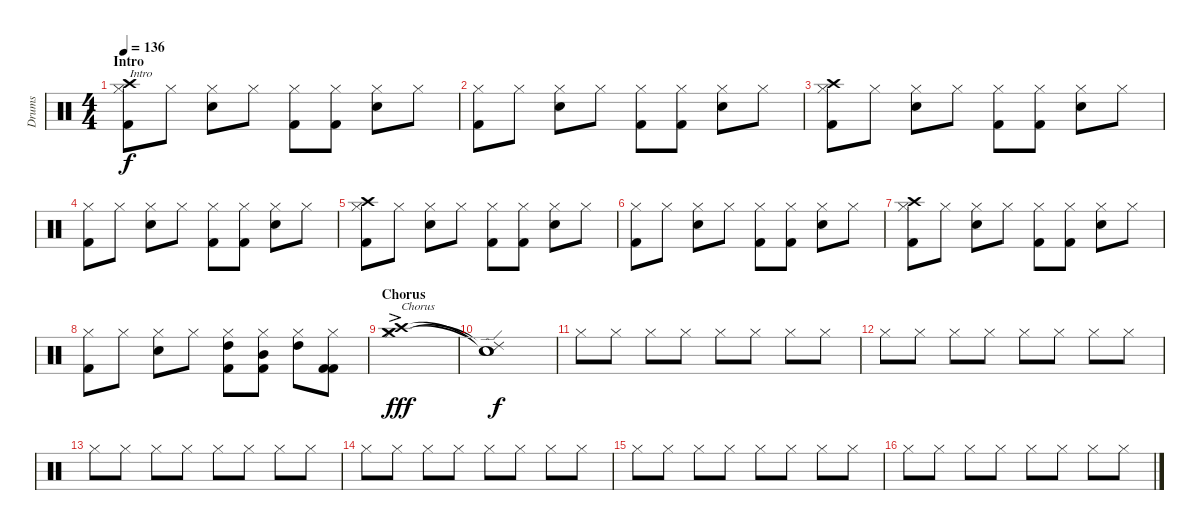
\track ("Drums" "Drums") {instrument percussion}
\staff {score}
\articulation defaults
\ts (4 4)
\section ("" "Intro")
\tempo 136
\clef neutral
\ks c
("Crash high (hit)" "Hi-Hat (closed)" "Kick (hit) 2").8{txt "Intro" dy f} "Hi-Hat (closed)".8 ("Snare (hit) 2" "Hi-Hat (closed)").8 "Hi-Hat (closed)".8 ("Hi-Hat (closed)" "Kick (hit) 2").8 ("Hi-Hat (closed)" "Kick (hit) 2").8 ("Snare (hit) 2" "Hi-Hat (closed)").8 "Hi-Hat (closed)".8 |
("Hi-Hat (closed)" "Kick (hit) 2").8 "Hi-Hat (closed)".8 ("Snare (hit) 2" "Hi-Hat (closed)").8 "Hi-Hat (closed)".8 ("Hi-Hat (closed)" "Kick (hit) 2").8 ("Hi-Hat (closed)" "Kick (hit) 2").8 ("Snare (hit) 2" "Hi-Hat (closed)").8 "Hi-Hat (closed)".8 |
("Crash high (hit)" "Hi-Hat (closed)" "Kick (hit) 2").8 "Hi-Hat (closed)".8 ("Snare (hit) 2" "Hi-Hat (closed)").8 "Hi-Hat (closed)".8 ("Hi-Hat (closed)" "Kick (hit) 2").8 ("Hi-Hat (closed)" "Kick (hit) 2").8 ("Snare (hit) 2" "Hi-Hat (closed)").8 "Hi-Hat (closed)".8 |
("Hi-Hat (closed)" "Kick (hit) 2").8 "Hi-Hat (closed)".8 ("Snare (hit) 2" "Hi-Hat (closed)").8 "Hi-Hat (closed)".8 ("Hi-Hat (closed)" "Kick (hit) 2").8 ("Hi-Hat (closed)" "Kick (hit) 2").8 ("Snare (hit) 2" "Hi-Hat (closed)").8 "Hi-Hat (closed)".8 |
("Crash high (hit)" "Hi-Hat (closed)" "Kick (hit) 2").8 "Hi-Hat (closed)".8 ("Snare (hit) 2" "Hi-Hat (closed)").8 "Hi-Hat (closed)".8 ("Hi-Hat (closed)" "Kick (hit) 2").8 ("Hi-Hat (closed)" "Kick (hit) 2").8 ("Snare (hit) 2" "Hi-Hat (closed)").8 "Hi-Hat (closed)".8 |
("Hi-Hat (closed)" "Kick (hit) 2").8 "Hi-Hat (closed)".8 ("Snare (hit) 2" "Hi-Hat (closed)").8 "Hi-Hat (closed)".8 ("Hi-Hat (closed)" "Kick (hit) 2").8 ("Hi-Hat (closed)" "Kick (hit) 2").8 ("Snare (hit) 2" "Hi-Hat (closed)").8 "Hi-Hat (closed)".8 |
("Crash high (hit)" "Hi-Hat (closed)" "Kick (hit) 2").8 "Hi-Hat (closed)".8 ("Snare (hit) 2" "Hi-Hat (closed)").8 "Hi-Hat (closed)".8 ("Hi-Hat (closed)" "Kick (hit) 2").8 ("Hi-Hat (closed)" "Kick (hit) 2").8 ("Snare (hit) 2" "Hi-Hat (closed)").8 "Hi-Hat (closed)".8 |
("Hi-Hat (closed)" "Kick (hit) 2").8 "Hi-Hat (closed)".8 ("Snare (hit) 2" "Hi-Hat (closed)").8 "Hi-Hat (closed)".8 ("High Tom (hit)" "Hi-Hat (closed)" "Kick (hit) 2").8 ("Mid Tom (hit)" "Hi-Hat (closed)" "Kick (hit) 2").8 ("High Tom (hit)" "Hi-Hat (closed)").8 ("Kick (hit) 2" "Hi-Hat (closed)" "Kick (hit) 2").8 |
\section ("" "Chorus")
("Crash medium (hit)"{ac} "Crash high (hit)"{ac} "Hi-Hat (closed)"{ac}).1{txt "Chorus" dy fff} |
("Ride (edge) 2"{t} "Snare (hit)"{t} "Snare (hit)"{t}).1{dy f} |
"Hi-Hat (closed)".8{volume 9} "Hi-Hat (closed)".8 "Hi-Hat (closed)".8 "Hi-Hat (closed)".8 "Hi-Hat (closed)".8 "Hi-Hat (closed)".8 "Hi-Hat (closed)".8 "Hi-Hat (closed)".8 |
"Hi-Hat (closed)".8 "Hi-Hat (closed)".8 "Hi-Hat (closed)".8 "Hi-Hat (closed)".8 "Hi-Hat (closed)".8 "Hi-Hat (closed)".8 "Hi-Hat (closed)".8 "Hi-Hat (closed)".8 |
"Hi-Hat (closed)".8 "Hi-Hat (closed)".8 "Hi-Hat (closed)".8 "Hi-Hat (closed)".8 "Hi-Hat (closed)".8 "Hi-Hat (closed)".8 "Hi-Hat (closed)".8 "Hi-Hat (closed)".8 |
"Hi-Hat (closed)".8 "Hi-Hat (closed)".8 "Hi-Hat (closed)".8 "Hi-Hat (closed)".8 "Hi-Hat (closed)".8 "Hi-Hat (closed)".8 "Hi-Hat (closed)".8 "Hi-Hat (closed)".8 |
"Hi-Hat (closed)".8 "Hi-Hat (closed)".8 "Hi-Hat (closed)".8 "Hi-Hat (closed)".8 "Hi-Hat (closed)".8 "Hi-Hat (closed)".8 "Hi-Hat (closed)".8 "Hi-Hat (closed)".8 |
"Hi-Hat (closed)".8 "Hi-Hat (closed)".8 "Hi-Hat (closed)".8 "Hi-Hat (closed)".8 "Hi-Hat (closed)".8 "Hi-Hat (closed)".8 "Hi-Hat (closed)".8 "Hi-Hat (closed)".8
